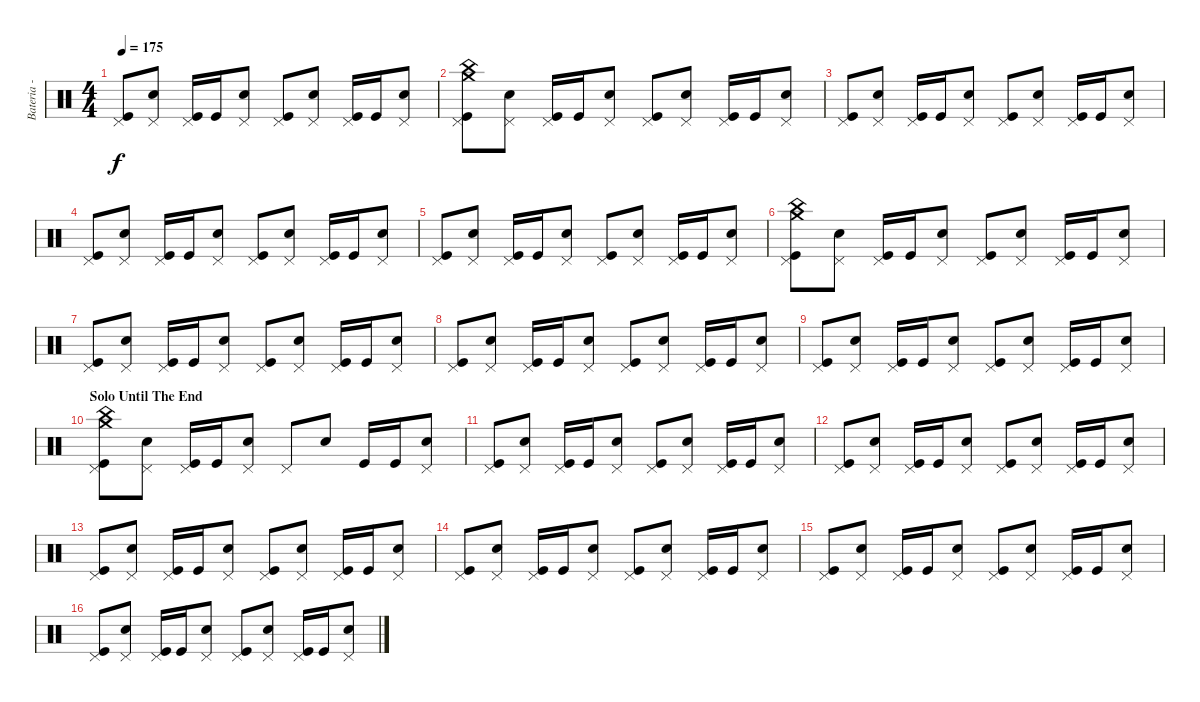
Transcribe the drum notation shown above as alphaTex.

\track ("Bateria - Larzon" "Bateria - ") {instrument percussion}
\staff {score}
\articulation defaults
\ts (4 4)
\tempo 175
\clef neutral
\ks c
("Pedal Hi-Hat (hit)" "Kick (hit)").8{dy f} ("Snare (hit) 2" "Pedal Hi-Hat (hit)").8 ("Kick (hit)" "Pedal Hi-Hat (hit)").16 "Kick (hit)".16 ("Snare (hit) 2" "Pedal Hi-Hat (hit)").8 ("Kick (hit)" "Pedal Hi-Hat (hit)").8 ("Snare (hit) 2" "Pedal Hi-Hat (hit)").8 ("Kick (hit)" "Pedal Hi-Hat (hit)").16 "Kick (hit)".16 ("Snare (hit) 2" "Pedal Hi-Hat (hit)").8 |
("Kick (hit)" "Pedal Hi-Hat (hit)" "Crash medium (hit)" "China (hit)").8 ("Snare (hit) 2" "Pedal Hi-Hat (hit)").8 ("Kick (hit)" "Pedal Hi-Hat (hit)").16 "Kick (hit)".16 ("Snare (hit) 2" "Pedal Hi-Hat (hit)").8 ("Pedal Hi-Hat (hit)" "Kick (hit)").8 ("Snare (hit) 2" "Pedal Hi-Hat (hit)").8 ("Kick (hit)" "Pedal Hi-Hat (hit)").16 "Kick (hit)".16 ("Snare (hit) 2" "Pedal Hi-Hat (hit)").8 |
("Pedal Hi-Hat (hit)" "Kick (hit)").8 ("Snare (hit) 2" "Pedal Hi-Hat (hit)").8 ("Kick (hit)" "Pedal Hi-Hat (hit)").16 "Kick (hit)".16 ("Snare (hit) 2" "Pedal Hi-Hat (hit)").8 ("Kick (hit)" "Pedal Hi-Hat (hit)").8 ("Snare (hit) 2" "Pedal Hi-Hat (hit)").8 ("Kick (hit)" "Pedal Hi-Hat (hit)").16 "Kick (hit)".16 ("Snare (hit) 2" "Pedal Hi-Hat (hit)").8 |
("Pedal Hi-Hat (hit)" "Kick (hit)").8 ("Snare (hit) 2" "Pedal Hi-Hat (hit)").8 ("Kick (hit)" "Pedal Hi-Hat (hit)").16 "Kick (hit)".16 ("Snare (hit) 2" "Pedal Hi-Hat (hit)").8 ("Kick (hit)" "Pedal Hi-Hat (hit)").8 ("Snare (hit) 2" "Pedal Hi-Hat (hit)").8 ("Kick (hit)" "Pedal Hi-Hat (hit)").16 "Kick (hit)".16 ("Snare (hit) 2" "Pedal Hi-Hat (hit)").8 |
("Pedal Hi-Hat (hit)" "Kick (hit)").8 ("Snare (hit) 2" "Pedal Hi-Hat (hit)").8 ("Kick (hit)" "Pedal Hi-Hat (hit)").16 "Kick (hit)".16 ("Snare (hit) 2" "Pedal Hi-Hat (hit)").8 ("Kick (hit)" "Pedal Hi-Hat (hit)").8 ("Snare (hit) 2" "Pedal Hi-Hat (hit)").8 ("Kick (hit)" "Pedal Hi-Hat (hit)").16 "Kick (hit)".16 ("Snare (hit) 2" "Pedal Hi-Hat (hit)").8 |
("Kick (hit)" "Pedal Hi-Hat (hit)" "Crash medium (hit)" "China (hit)").8 ("Snare (hit) 2" "Pedal Hi-Hat (hit)").8 ("Kick (hit)" "Pedal Hi-Hat (hit)").16 "Kick (hit)".16 ("Snare (hit) 2" "Pedal Hi-Hat (hit)").8 ("Pedal Hi-Hat (hit)" "Kick (hit)").8 ("Snare (hit) 2" "Pedal Hi-Hat (hit)").8 ("Kick (hit)" "Pedal Hi-Hat (hit)").16 "Kick (hit)".16 ("Snare (hit) 2" "Pedal Hi-Hat (hit)").8 |
("Pedal Hi-Hat (hit)" "Kick (hit)").8 ("Snare (hit) 2" "Pedal Hi-Hat (hit)").8 ("Kick (hit)" "Pedal Hi-Hat (hit)").16 "Kick (hit)".16 ("Snare (hit) 2" "Pedal Hi-Hat (hit)").8 ("Kick (hit)" "Pedal Hi-Hat (hit)").8 ("Snare (hit) 2" "Pedal Hi-Hat (hit)").8 ("Kick (hit)" "Pedal Hi-Hat (hit)").16 "Kick (hit)".16 ("Snare (hit) 2" "Pedal Hi-Hat (hit)").8 |
("Pedal Hi-Hat (hit)" "Kick (hit)").8 ("Snare (hit) 2" "Pedal Hi-Hat (hit)").8 ("Kick (hit)" "Pedal Hi-Hat (hit)").16 "Kick (hit)".16 ("Snare (hit) 2" "Pedal Hi-Hat (hit)").8 ("Kick (hit)" "Pedal Hi-Hat (hit)").8 ("Snare (hit) 2" "Pedal Hi-Hat (hit)").8 ("Kick (hit)" "Pedal Hi-Hat (hit)").16 "Kick (hit)".16 ("Snare (hit) 2" "Pedal Hi-Hat (hit)").8 |
("Pedal Hi-Hat (hit)" "Kick (hit)").8 ("Snare (hit) 2" "Pedal Hi-Hat (hit)").8 ("Kick (hit)" "Pedal Hi-Hat (hit)").16 "Kick (hit)".16 ("Snare (hit) 2" "Pedal Hi-Hat (hit)").8 ("Kick (hit)" "Pedal Hi-Hat (hit)").8 ("Snare (hit) 2" "Pedal Hi-Hat (hit)").8 ("Kick (hit)" "Pedal Hi-Hat (hit)").16 "Kick (hit)".16 ("Snare (hit) 2" "Pedal Hi-Hat (hit)").8 |
\section ("" "Solo Until The End")
("China (hit)" "Crash medium (hit)" "Pedal Hi-Hat (hit)" "Kick (hit)").8 ("Snare (hit) 2" "Pedal Hi-Hat (hit)").8 ("Kick (hit)" "Pedal Hi-Hat (hit)").16 "Kick (hit)".16 ("Snare (hit) 2" "Pedal Hi-Hat (hit)").8 "Pedal Hi-Hat (hit)".8 "Snare (hit) 2".8 "Kick (hit)".16 "Kick (hit)".16 ("Snare (hit) 2" "Pedal Hi-Hat (hit)").8 |
("Kick (hit)" "Pedal Hi-Hat (hit)").8 ("Snare (hit) 2" "Pedal Hi-Hat (hit)").8 ("Kick (hit)" "Pedal Hi-Hat (hit)").16 "Kick (hit)".16 ("Snare (hit) 2" "Pedal Hi-Hat (hit)").8 ("Pedal Hi-Hat (hit)" "Kick (hit)").8 ("Snare (hit) 2" "Pedal Hi-Hat (hit)").8 ("Kick (hit)" "Pedal Hi-Hat (hit)").16 "Kick (hit)".16 ("Snare (hit) 2" "Pedal Hi-Hat (hit)").8 |
("Kick (hit)" "Pedal Hi-Hat (hit)").8 ("Snare (hit) 2" "Pedal Hi-Hat (hit)").8 ("Kick (hit)" "Pedal Hi-Hat (hit)").16 "Kick (hit)".16 ("Snare (hit) 2" "Pedal Hi-Hat (hit)").8 ("Pedal Hi-Hat (hit)" "Kick (hit)").8 ("Snare (hit) 2" "Pedal Hi-Hat (hit)").8 ("Kick (hit)" "Pedal Hi-Hat (hit)").16 "Kick (hit)".16 ("Snare (hit) 2" "Pedal Hi-Hat (hit)").8 |
("Kick (hit)" "Pedal Hi-Hat (hit)").8 ("Snare (hit) 2" "Pedal Hi-Hat (hit)").8 ("Kick (hit)" "Pedal Hi-Hat (hit)").16 "Kick (hit)".16 ("Snare (hit) 2" "Pedal Hi-Hat (hit)").8 ("Pedal Hi-Hat (hit)" "Kick (hit)").8 ("Snare (hit) 2" "Pedal Hi-Hat (hit)").8 ("Kick (hit)" "Pedal Hi-Hat (hit)").16 "Kick (hit)".16 ("Snare (hit) 2" "Pedal Hi-Hat (hit)").8 |
("Kick (hit)" "Pedal Hi-Hat (hit)").8 ("Snare (hit) 2" "Pedal Hi-Hat (hit)").8 ("Kick (hit)" "Pedal Hi-Hat (hit)").16 "Kick (hit)".16 ("Snare (hit) 2" "Pedal Hi-Hat (hit)").8 ("Pedal Hi-Hat (hit)" "Kick (hit)").8 ("Snare (hit) 2" "Pedal Hi-Hat (hit)").8 ("Kick (hit)" "Pedal Hi-Hat (hit)").16 "Kick (hit)".16 ("Snare (hit) 2" "Pedal Hi-Hat (hit)").8 |
("Kick (hit)" "Pedal Hi-Hat (hit)").8 ("Snare (hit) 2" "Pedal Hi-Hat (hit)").8 ("Kick (hit)" "Pedal Hi-Hat (hit)").16 "Kick (hit)".16 ("Snare (hit) 2" "Pedal Hi-Hat (hit)").8 ("Pedal Hi-Hat (hit)" "Kick (hit)").8 ("Snare (hit) 2" "Pedal Hi-Hat (hit)").8 ("Kick (hit)" "Pedal Hi-Hat (hit)").16 "Kick (hit)".16 ("Snare (hit) 2" "Pedal Hi-Hat (hit)").8 |
("Kick (hit)" "Pedal Hi-Hat (hit)").8 ("Snare (hit) 2" "Pedal Hi-Hat (hit)").8 ("Kick (hit)" "Pedal Hi-Hat (hit)").16 "Kick (hit)".16 ("Snare (hit) 2" "Pedal Hi-Hat (hit)").8 ("Pedal Hi-Hat (hit)" "Kick (hit)").8 ("Snare (hit) 2" "Pedal Hi-Hat (hit)").8 ("Kick (hit)" "Pedal Hi-Hat (hit)").16 "Kick (hit)".16 ("Snare (hit) 2" "Pedal Hi-Hat (hit)").8
